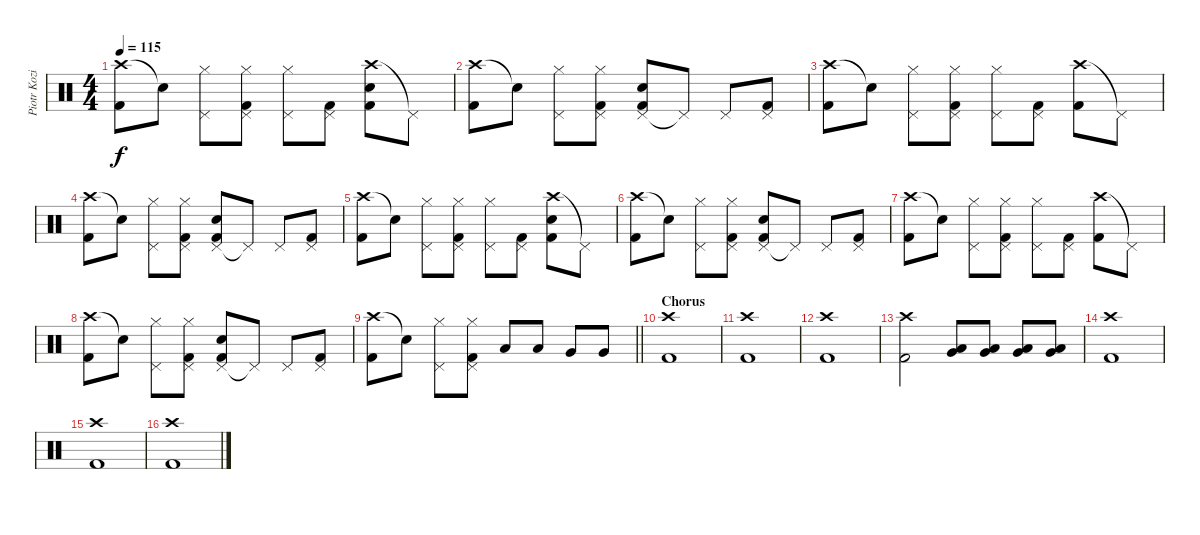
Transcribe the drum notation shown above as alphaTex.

\track ("Piotr Kozieradzki" "Piotr Kozi") {instrument percussion}
\staff {score}
\articulation defaults
\ts (4 4)
\tempo 115
\clef neutral
\ks c
("Crash high (hit)" "Kick (hit) 2").8{dy f} "Snare (hit)"{t}.8 ("Pedal Hi-Hat (hit)" "Hi-Hat (closed)").8 ("Pedal Hi-Hat (hit)" "Hi-Hat (closed)" "Kick (hit) 2").8 ("Pedal Hi-Hat (hit)" "Hi-Hat (closed)").8 ("Pedal Hi-Hat (hit)" "Kick (hit) 2").8 ("Crash high (hit)" "Electric Snare (hit)" "Kick (hit) 2").8 "Pedal Hi-Hat (hit)"{t}.8 |
("Crash high (hit)" "Kick (hit) 2").8 "Snare (hit)"{t}.8 ("Pedal Hi-Hat (hit)" "Hi-Hat (closed)").8 ("Pedal Hi-Hat (hit)" "Hi-Hat (closed)" "Kick (hit) 2").8 ("Pedal Hi-Hat (hit)" "Electric Snare (hit)" "Kick (hit) 2").8 "Pedal Hi-Hat (hit)"{t}.8 "Pedal Hi-Hat (hit)".8 ("Pedal Hi-Hat (hit)" "Kick (hit) 2").8 |
("Crash high (hit)" "Kick (hit) 2").8 "Snare (hit)"{t}.8 ("Pedal Hi-Hat (hit)" "Hi-Hat (closed)").8 ("Pedal Hi-Hat (hit)" "Hi-Hat (closed)" "Kick (hit) 2").8 ("Pedal Hi-Hat (hit)" "Hi-Hat (closed)").8 ("Pedal Hi-Hat (hit)" "Kick (hit) 2").8 ("Crash high (hit)" "Kick (hit) 2").8 "Pedal Hi-Hat (hit)"{t}.8 |
("Crash high (hit)" "Kick (hit) 2").8 "Snare (hit)"{t}.8 ("Pedal Hi-Hat (hit)" "Hi-Hat (closed)").8 ("Pedal Hi-Hat (hit)" "Hi-Hat (closed)" "Kick (hit) 2").8 ("Pedal Hi-Hat (hit)" "Electric Snare (hit)" "Kick (hit) 2").8 "Pedal Hi-Hat (hit)"{t}.8 "Pedal Hi-Hat (hit)".8 ("Pedal Hi-Hat (hit)" "Kick (hit) 2").8 |
("Crash high (hit)" "Kick (hit) 2").8 "Snare (hit)"{t}.8 ("Pedal Hi-Hat (hit)" "Hi-Hat (closed)").8 ("Pedal Hi-Hat (hit)" "Hi-Hat (closed)" "Kick (hit) 2").8 ("Pedal Hi-Hat (hit)" "Hi-Hat (closed)").8 ("Pedal Hi-Hat (hit)" "Kick (hit) 2").8 ("Crash high (hit)" "Electric Snare (hit)" "Kick (hit) 2").8 "Pedal Hi-Hat (hit)"{t}.8 |
("Crash high (hit)" "Kick (hit) 2").8 "Snare (hit)"{t}.8 ("Pedal Hi-Hat (hit)" "Hi-Hat (closed)").8 ("Pedal Hi-Hat (hit)" "Hi-Hat (closed)" "Kick (hit) 2").8 ("Pedal Hi-Hat (hit)" "Electric Snare (hit)" "Kick (hit) 2").8 "Pedal Hi-Hat (hit)"{t}.8 "Pedal Hi-Hat (hit)".8 ("Pedal Hi-Hat (hit)" "Kick (hit) 2").8 |
("Crash high (hit)" "Kick (hit) 2").8 "Snare (hit)"{t}.8 ("Pedal Hi-Hat (hit)" "Hi-Hat (closed)").8 ("Pedal Hi-Hat (hit)" "Hi-Hat (closed)" "Kick (hit) 2").8 ("Pedal Hi-Hat (hit)" "Hi-Hat (closed)").8 ("Pedal Hi-Hat (hit)" "Kick (hit) 2").8 ("Crash high (hit)" "Kick (hit) 2").8 "Pedal Hi-Hat (hit)"{t}.8 |
("Crash high (hit)" "Kick (hit) 2").8 "Snare (hit)"{t}.8 ("Pedal Hi-Hat (hit)" "Hi-Hat (closed)").8 ("Pedal Hi-Hat (hit)" "Hi-Hat (closed)" "Kick (hit) 2").8 ("Pedal Hi-Hat (hit)" "Electric Snare (hit)" "Kick (hit) 2").8 "Pedal Hi-Hat (hit)"{t}.8 "Pedal Hi-Hat (hit)".8 ("Pedal Hi-Hat (hit)" "Kick (hit) 2").8 |
\barLineRight lightlight
("Crash high (hit)" "Kick (hit) 2").8 "Snare (hit)"{t}.8 ("Pedal Hi-Hat (hit)" "Hi-Hat (closed)").8 ("Pedal Hi-Hat (hit)" "Hi-Hat (closed)" "Kick (hit) 2").8 "Low Tom (hit)".8 "Low Tom (hit)".8 "Very Low Tom (hit)".8 "Very Low Tom (hit)".8 |
\section ("" "Chorus")
("Crash high (hit)" "Kick (hit) 2").1 |
("Crash high (hit)" "Kick (hit) 2").1 |
("Crash high (hit)" "Kick (hit) 2").1 |
("Crash high (hit)" "Kick (hit) 2").2 ("Low Tom (hit)" "Very Low Tom (hit)").8 ("Low Tom (hit)" "Very Low Tom (hit)").8 ("Low Tom (hit)" "Very Low Tom (hit)").8 ("Low Tom (hit)" "Very Low Tom (hit)").8 |
("Crash high (hit)" "Kick (hit) 2").1 |
("Crash high (hit)" "Kick (hit) 2").1 |
("Crash high (hit)" "Kick (hit) 2").1
